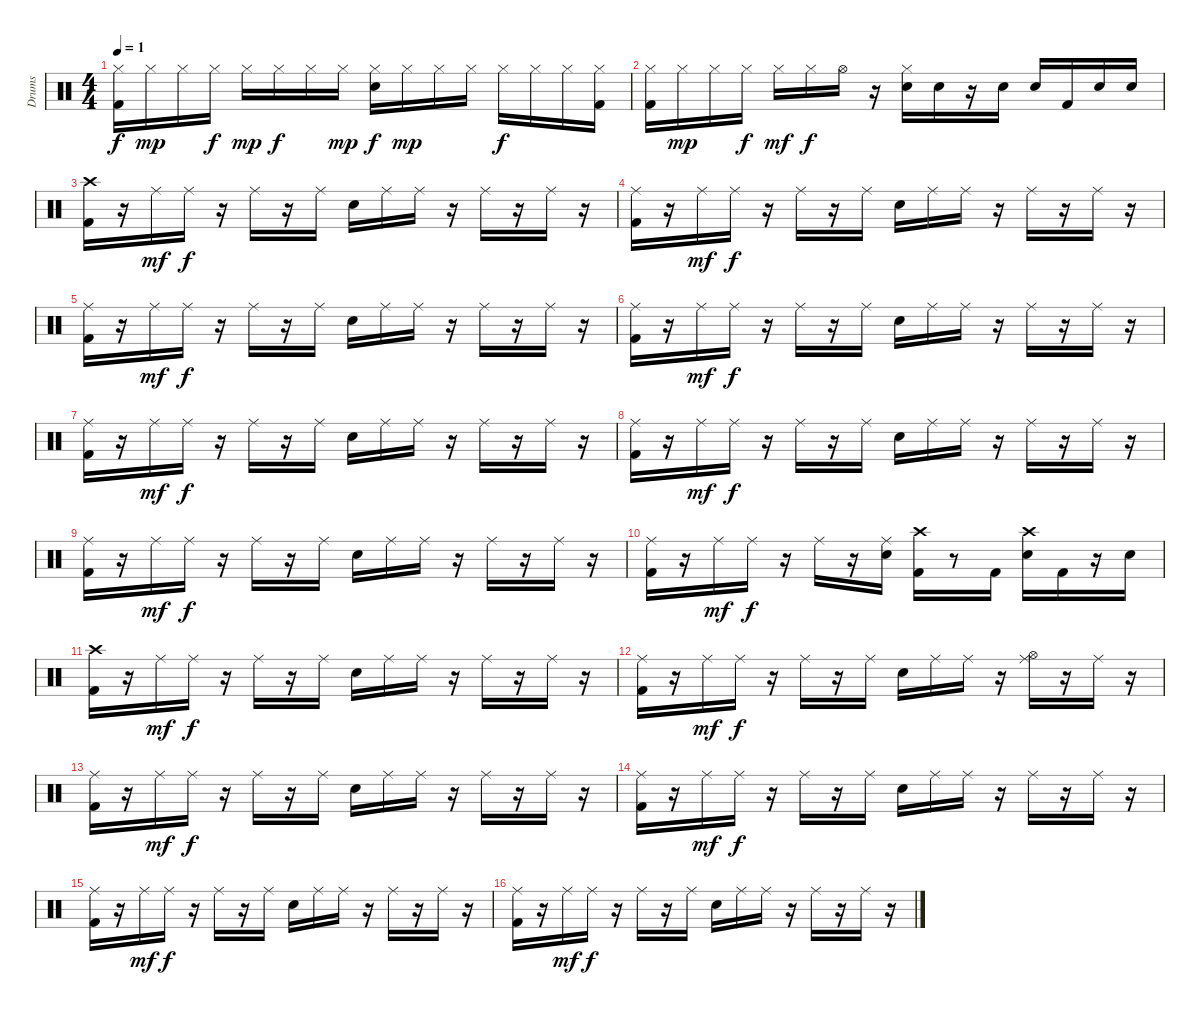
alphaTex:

\track ("Drums" "Drums") {instrument percussion}
\staff {score}
\articulation defaults
\ts (4 4)
\tempo 1
\clef neutral
\ks c
("Kick (hit) 2" "Hi-Hat (closed)").16{dy f} "Hi-Hat (closed)".16{dy mp} "Hi-Hat (closed)".16 "Hi-Hat (closed)".16{dy f} "Hi-Hat (closed)".16{dy mp} "Hi-Hat (closed)".16{dy f} "Hi-Hat (closed)".16 "Hi-Hat (closed)".16{dy mp} ("Snare (hit) 2" "Hi-Hat (closed)").16{dy f} "Hi-Hat (closed)".16{dy mp} "Hi-Hat (closed)".16 "Hi-Hat (closed)".16 "Hi-Hat (closed)".16{dy f} "Hi-Hat (closed)".16 "Hi-Hat (closed)".16 ("Kick (hit) 2" "Hi-Hat (closed)").16 |
("Kick (hit) 2" "Hi-Hat (closed)").16 "Hi-Hat (closed)".16{dy mp} "Hi-Hat (closed)".16 "Hi-Hat (closed)".16{dy f} "Hi-Hat (closed)".16{dy mf} "Hi-Hat (closed)".16{dy f} "Hi-Hat (open)".16 r.16 ("Snare (hit) 2" "Hi-Hat (closed)").16 "Snare (hit) 2".16 r.16 "Snare (hit) 2".16 "Snare (hit) 2".16 "Kick (hit) 2".16 "Snare (hit) 2".16 "Snare (hit) 2".16 |
("Kick (hit) 2" "Crash high (hit)").16 r.16 "Ride (middle)".16{dy mf} "Ride (middle)".16{dy f} r.16 "Ride (middle)".16 r.16 "Ride (middle)".16 "Snare (hit) 2".16 "Ride (middle)".16 "Ride (middle)".16 r.16 "Ride (middle)".16 r.16 "Ride (middle)".16 r.16 |
("Kick (hit) 2" "Ride (middle)").16 r.16 "Ride (middle)".16{dy mf} "Ride (middle)".16{dy f} r.16 "Ride (middle)".16 r.16 "Ride (middle)".16 "Snare (hit) 2".16 "Ride (middle)".16 "Ride (middle)".16 r.16 "Ride (middle)".16 r.16 "Ride (middle)".16 r.16 |
("Kick (hit) 2" "Ride (middle)").16 r.16 "Ride (middle)".16{dy mf} "Ride (middle)".16{dy f} r.16 "Ride (middle)".16 r.16 "Ride (middle)".16 "Snare (hit) 2".16 "Ride (middle)".16 "Ride (middle)".16 r.16 "Ride (middle)".16 r.16 "Ride (middle)".16 r.16 |
("Kick (hit) 2" "Ride (middle)").16 r.16 "Ride (middle)".16{dy mf} "Ride (middle)".16{dy f} r.16 "Ride (middle)".16 r.16 "Ride (middle)".16 "Snare (hit) 2".16 "Ride (middle)".16 "Ride (middle)".16 r.16 "Ride (middle)".16 r.16 "Ride (middle)".16 r.16 |
("Kick (hit) 2" "Ride (middle)").16 r.16 "Ride (middle)".16{dy mf} "Ride (middle)".16{dy f} r.16 "Ride (middle)".16 r.16 "Ride (middle)".16 "Snare (hit) 2".16 "Ride (middle)".16 "Ride (middle)".16 r.16 "Ride (middle)".16 r.16 "Ride (middle)".16 r.16 |
("Kick (hit) 2" "Ride (middle)").16 r.16 "Ride (middle)".16{dy mf} "Ride (middle)".16{dy f} r.16 "Ride (middle)".16 r.16 "Ride (middle)".16 "Snare (hit) 2".16 "Ride (middle)".16 "Ride (middle)".16 r.16 "Ride (middle)".16 r.16 "Ride (middle)".16 r.16 |
("Kick (hit) 2" "Ride (middle)").16 r.16 "Ride (middle)".16{dy mf} "Ride (middle)".16{dy f} r.16 "Ride (middle)".16 r.16 "Ride (middle)".16 "Snare (hit) 2".16 "Ride (middle)".16 "Ride (middle)".16 r.16 "Ride (middle)".16 r.16 "Ride (middle)".16 r.16 |
("Kick (hit) 2" "Ride (middle)").16 r.16 "Ride (middle)".16{dy mf} "Ride (middle)".16{dy f} r.16 "Ride (middle)".16 r.16 ("Snare (hit) 2" "Ride (middle)").16 ("Kick (hit) 2" "Crash high (hit)").16 r.8 "Kick (hit) 2".16 ("Snare (hit) 2" "Crash high (hit)").16 "Kick (hit) 2".16 r.16 "Snare (hit) 2".16 |
("Kick (hit) 2" "Crash high (hit)").16 r.16 "Ride (middle)".16{dy mf} "Ride (middle)".16{dy f} r.16 "Ride (middle)".16 r.16 "Ride (middle)".16 "Snare (hit) 2".16 "Ride (middle)".16 "Ride (middle)".16 r.16 "Ride (middle)".16 r.16 "Ride (middle)".16 r.16 |
("Kick (hit) 2" "Ride (middle)").16 r.16 "Ride (middle)".16{dy mf} "Ride (middle)".16{dy f} r.16 "Ride (middle)".16 r.16 "Ride (middle)".16 "Snare (hit) 2".16 "Ride (middle)".16 "Ride (middle)".16 r.16 ("Hi-Hat (open)" "Ride (middle)").16 r.16 "Ride (middle)".16 r.16 |
("Kick (hit) 2" "Ride (middle)").16 r.16 "Ride (middle)".16{dy mf} "Ride (middle)".16{dy f} r.16 "Ride (middle)".16 r.16 "Ride (middle)".16 "Snare (hit) 2".16 "Ride (middle)".16 "Ride (middle)".16 r.16 "Ride (middle)".16 r.16 "Ride (middle)".16 r.16 |
("Kick (hit) 2" "Ride (middle)").16 r.16 "Ride (middle)".16{dy mf} "Ride (middle)".16{dy f} r.16 "Ride (middle)".16 r.16 "Ride (middle)".16 "Snare (hit) 2".16 "Ride (middle)".16 "Ride (middle)".16 r.16 "Ride (middle)".16 r.16 "Ride (middle)".16 r.16 |
("Kick (hit) 2" "Ride (middle)").16 r.16 "Ride (middle)".16{dy mf} "Ride (middle)".16{dy f} r.16 "Ride (middle)".16 r.16 "Ride (middle)".16 "Snare (hit) 2".16 "Ride (middle)".16 "Ride (middle)".16 r.16 "Ride (middle)".16 r.16 "Ride (middle)".16 r.16 |
("Kick (hit) 2" "Ride (middle)").16 r.16 "Ride (middle)".16{dy mf} "Ride (middle)".16{dy f} r.16 "Ride (middle)".16 r.16 "Ride (middle)".16 "Snare (hit) 2".16 "Ride (middle)".16 "Ride (middle)".16 r.16 "Ride (middle)".16 r.16 "Ride (middle)".16 r.16
